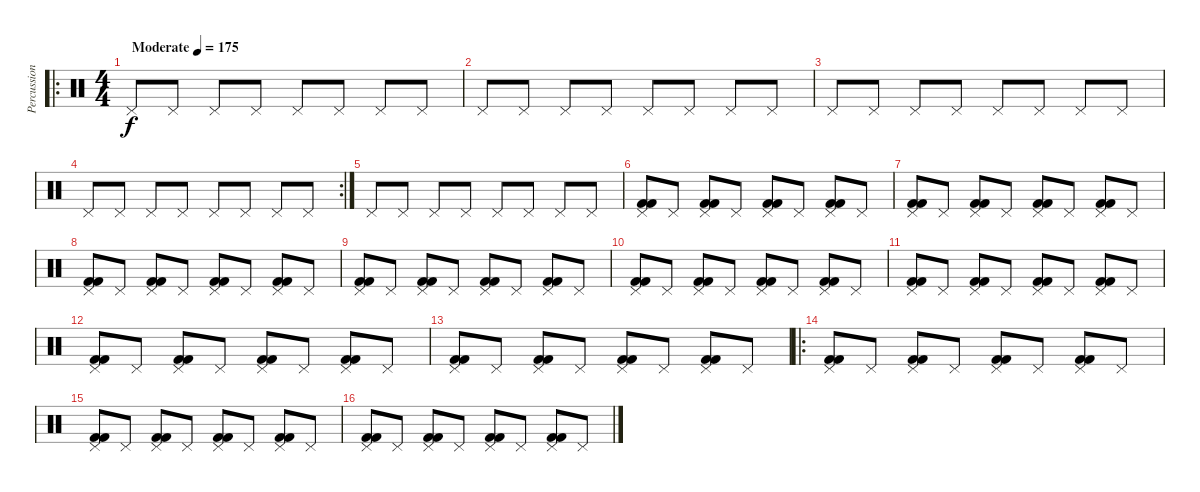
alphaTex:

\track ("Percussion" "Percussion") {instrument percussion}
\staff {score}
\articulation defaults
\ro
\ts (4 4)
\tempo (175 "Moderate")
\clef neutral
\ks c "Pedal Hi-Hat (hit)".8{dy f} "Pedal Hi-Hat (hit)".8 "Pedal Hi-Hat (hit)".8 "Pedal Hi-Hat (hit)".8 "Pedal Hi-Hat (hit)".8 "Pedal Hi-Hat (hit)".8 "Pedal Hi-Hat (hit)".8 "Pedal Hi-Hat (hit)".8
|
"Pedal Hi-Hat (hit)".8 "Pedal Hi-Hat (hit)".8 "Pedal Hi-Hat (hit)".8 "Pedal Hi-Hat (hit)".8 "Pedal Hi-Hat (hit)".8 "Pedal Hi-Hat (hit)".8 "Pedal Hi-Hat (hit)".8 "Pedal Hi-Hat (hit)".8 |
"Pedal Hi-Hat (hit)".8 "Pedal Hi-Hat (hit)".8 "Pedal Hi-Hat (hit)".8 "Pedal Hi-Hat (hit)".8 "Pedal Hi-Hat (hit)".8 "Pedal Hi-Hat (hit)".8 "Pedal Hi-Hat (hit)".8 "Pedal Hi-Hat (hit)".8 |
\rc 2 "Pedal Hi-Hat (hit)".8 "Pedal Hi-Hat (hit)".8 "Pedal Hi-Hat (hit)".8 "Pedal Hi-Hat (hit)".8 "Pedal Hi-Hat (hit)".8 "Pedal Hi-Hat (hit)".8 "Pedal Hi-Hat (hit)".8 "Pedal Hi-Hat (hit)".8
|
"Pedal Hi-Hat (hit)".8 "Pedal Hi-Hat (hit)".8 "Pedal Hi-Hat (hit)".8 "Pedal Hi-Hat (hit)".8 "Pedal Hi-Hat (hit)".8 "Pedal Hi-Hat (hit)".8 "Pedal Hi-Hat (hit)".8 "Pedal Hi-Hat (hit)".8 |
("Kick (hit) 2" "Kick (hit) 2" "Pedal Hi-Hat (hit)").8 "Pedal Hi-Hat (hit)".8 ("Kick (hit) 2" "Kick (hit) 2" "Pedal Hi-Hat (hit)").8 "Pedal Hi-Hat (hit)".8 ("Kick (hit) 2" "Kick (hit) 2" "Pedal Hi-Hat (hit)").8 "Pedal Hi-Hat (hit)".8 ("Kick (hit) 2" "Kick (hit) 2" "Pedal Hi-Hat (hit)").8 "Pedal Hi-Hat (hit)".8 |
("Kick (hit) 2" "Kick (hit) 2" "Pedal Hi-Hat (hit)").8 "Pedal Hi-Hat (hit)".8 ("Kick (hit) 2" "Kick (hit) 2" "Pedal Hi-Hat (hit)").8 "Pedal Hi-Hat (hit)".8 ("Kick (hit) 2" "Kick (hit) 2" "Pedal Hi-Hat (hit)").8 "Pedal Hi-Hat (hit)".8 ("Kick (hit) 2" "Kick (hit) 2" "Pedal Hi-Hat (hit)").8 "Pedal Hi-Hat (hit)".8 |
("Kick (hit) 2" "Kick (hit) 2" "Pedal Hi-Hat (hit)").8 "Pedal Hi-Hat (hit)".8 ("Kick (hit) 2" "Kick (hit) 2" "Pedal Hi-Hat (hit)").8 "Pedal Hi-Hat (hit)".8 ("Kick (hit) 2" "Kick (hit) 2" "Pedal Hi-Hat (hit)").8 "Pedal Hi-Hat (hit)".8 ("Kick (hit) 2" "Kick (hit) 2" "Pedal Hi-Hat (hit)").8 "Pedal Hi-Hat (hit)".8 |
("Kick (hit) 2" "Kick (hit) 2" "Pedal Hi-Hat (hit)").8 "Pedal Hi-Hat (hit)".8 ("Kick (hit) 2" "Kick (hit) 2" "Pedal Hi-Hat (hit)").8 "Pedal Hi-Hat (hit)".8 ("Kick (hit) 2" "Kick (hit) 2" "Pedal Hi-Hat (hit)").8 "Pedal Hi-Hat (hit)".8 ("Kick (hit) 2" "Kick (hit) 2" "Pedal Hi-Hat (hit)").8 "Pedal Hi-Hat (hit)".8 |
("Kick (hit) 2" "Kick (hit) 2" "Pedal Hi-Hat (hit)").8 "Pedal Hi-Hat (hit)".8 ("Kick (hit) 2" "Kick (hit) 2" "Pedal Hi-Hat (hit)").8 "Pedal Hi-Hat (hit)".8 ("Kick (hit) 2" "Kick (hit) 2" "Pedal Hi-Hat (hit)").8 "Pedal Hi-Hat (hit)".8 ("Kick (hit) 2" "Kick (hit) 2" "Pedal Hi-Hat (hit)").8 "Pedal Hi-Hat (hit)".8 |
("Kick (hit) 2" "Kick (hit) 2" "Pedal Hi-Hat (hit)").8 "Pedal Hi-Hat (hit)".8 ("Kick (hit) 2" "Kick (hit) 2" "Pedal Hi-Hat (hit)").8 "Pedal Hi-Hat (hit)".8 ("Kick (hit) 2" "Kick (hit) 2" "Pedal Hi-Hat (hit)").8 "Pedal Hi-Hat (hit)".8 ("Kick (hit) 2" "Kick (hit) 2" "Pedal Hi-Hat (hit)").8 "Pedal Hi-Hat (hit)".8 |
("Kick (hit) 2" "Kick (hit) 2" "Pedal Hi-Hat (hit)").8 "Pedal Hi-Hat (hit)".8 ("Kick (hit) 2" "Kick (hit) 2" "Pedal Hi-Hat (hit)").8 "Pedal Hi-Hat (hit)".8 ("Kick (hit) 2" "Kick (hit) 2" "Pedal Hi-Hat (hit)").8 "Pedal Hi-Hat (hit)".8 ("Kick (hit) 2" "Kick (hit) 2" "Pedal Hi-Hat (hit)").8 "Pedal Hi-Hat (hit)".8 |
("Kick (hit) 2" "Kick (hit) 2" "Pedal Hi-Hat (hit)").8 "Pedal Hi-Hat (hit)".8 ("Kick (hit) 2" "Kick (hit) 2" "Pedal Hi-Hat (hit)").8 "Pedal Hi-Hat (hit)".8 ("Kick (hit) 2" "Kick (hit) 2" "Pedal Hi-Hat (hit)").8 "Pedal Hi-Hat (hit)".8 ("Kick (hit) 2" "Kick (hit) 2" "Pedal Hi-Hat (hit)").8 "Pedal Hi-Hat (hit)".8 |
\ro
("Kick (hit) 2" "Kick (hit) 2" "Pedal Hi-Hat (hit)").8 "Pedal Hi-Hat (hit)".8 ("Kick (hit) 2" "Kick (hit) 2" "Pedal Hi-Hat (hit)").8 "Pedal Hi-Hat (hit)".8 ("Kick (hit) 2" "Kick (hit) 2" "Pedal Hi-Hat (hit)").8 "Pedal Hi-Hat (hit)".8 ("Kick (hit) 2" "Kick (hit) 2" "Pedal Hi-Hat (hit)").8 "Pedal Hi-Hat (hit)".8 |
("Kick (hit) 2" "Kick (hit) 2" "Pedal Hi-Hat (hit)").8 "Pedal Hi-Hat (hit)".8 ("Kick (hit) 2" "Kick (hit) 2" "Pedal Hi-Hat (hit)").8 "Pedal Hi-Hat (hit)".8 ("Kick (hit) 2" "Kick (hit) 2" "Pedal Hi-Hat (hit)").8 "Pedal Hi-Hat (hit)".8 ("Kick (hit) 2" "Kick (hit) 2" "Pedal Hi-Hat (hit)").8 "Pedal Hi-Hat (hit)".8 |
("Kick (hit) 2" "Kick (hit) 2" "Pedal Hi-Hat (hit)").8 "Pedal Hi-Hat (hit)".8 ("Kick (hit) 2" "Kick (hit) 2" "Pedal Hi-Hat (hit)").8 "Pedal Hi-Hat (hit)".8 ("Kick (hit) 2" "Kick (hit) 2" "Pedal Hi-Hat (hit)").8 "Pedal Hi-Hat (hit)".8 ("Kick (hit) 2" "Kick (hit) 2" "Pedal Hi-Hat (hit)").8 "Pedal Hi-Hat (hit)".8
